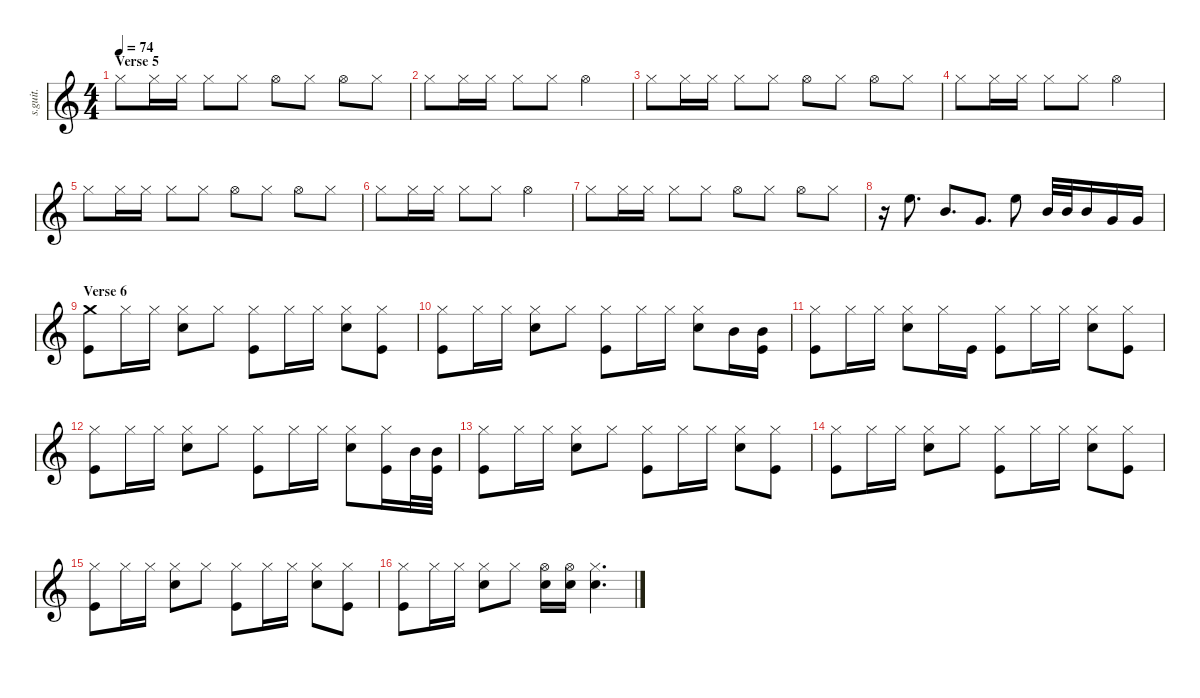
\defaultSystemsLayout 4
\hideDynamics
\bracketExtendMode nobrackets
\track ("Don Henley - Drums" "s.guit.") {instrument percussion}
\staff {score}
\articulation defaults
\ts (4 4)
\section ("" "Verse 5")
\tempo 74
\clef g2
\ks c "Hi-Hat (closed)".8{lyrics (0 "") lyrics (1 "") lyrics (2 "") lyrics (3 "") lyrics (4 "") dy f} "Hi-Hat (closed)".16{lyrics (0 "") lyrics (1 "") lyrics (2 "") lyrics (3 "") lyrics (4 "")} "Hi-Hat (closed)".16{lyrics (0 "") lyrics (1 "") lyrics (2 "") lyrics (3 "") lyrics (4 "")} "Hi-Hat (closed)".8{lyrics (0 "") lyrics (1 "") lyrics (2 "") lyrics (3 "") lyrics (4 "")} "Hi-Hat (closed)".8{lyrics (0 "") lyrics (1 "") lyrics (2 "") lyrics (3 "") lyrics (4 "")} "Hi-Hat (open)".8{lyrics (0 "") lyrics (1 "") lyrics (2 "") lyrics (3 "") lyrics (4 "")} "Hi-Hat (closed)".8{lyrics (0 "") lyrics (1 "") lyrics (2 "") lyrics (3 "") lyrics (4 "")} "Hi-Hat (open)".8{lyrics (0 "") lyrics (1 "") lyrics (2 "") lyrics (3 "") lyrics (4 "")} "Hi-Hat (closed)".8{lyrics (0 "") lyrics (1 "") lyrics (2 "") lyrics (3 "") lyrics (4 "")}
|
"Hi-Hat (closed)".8{lyrics (0 "") lyrics (1 "") lyrics (2 "") lyrics (3 "") lyrics (4 "")} "Hi-Hat (closed)".16{lyrics (0 "") lyrics (1 "") lyrics (2 "") lyrics (3 "") lyrics (4 "")} "Hi-Hat (closed)".16{lyrics (0 "") lyrics (1 "") lyrics (2 "") lyrics (3 "") lyrics (4 "")} "Hi-Hat (closed)".8{lyrics (0 "") lyrics (1 "") lyrics (2 "") lyrics (3 "") lyrics (4 "")} "Hi-Hat (closed)".8{lyrics (0 "") lyrics (1 "") lyrics (2 "") lyrics (3 "") lyrics (4 "")} "Hi-Hat (open)".2{lyrics (0 "") lyrics (1 "") lyrics (2 "") lyrics (3 "") lyrics (4 "")} |
"Hi-Hat (closed)".8{lyrics (0 "") lyrics (1 "") lyrics (2 "") lyrics (3 "") lyrics (4 "")} "Hi-Hat (closed)".16{lyrics (0 "") lyrics (1 "") lyrics (2 "") lyrics (3 "") lyrics (4 "")} "Hi-Hat (closed)".16{lyrics (0 "") lyrics (1 "") lyrics (2 "") lyrics (3 "") lyrics (4 "")} "Hi-Hat (closed)".8{lyrics (0 "") lyrics (1 "") lyrics (2 "") lyrics (3 "") lyrics (4 "")} "Hi-Hat (closed)".8{lyrics (0 "") lyrics (1 "") lyrics (2 "") lyrics (3 "") lyrics (4 "")} "Hi-Hat (open)".8{lyrics (0 "") lyrics (1 "") lyrics (2 "") lyrics (3 "") lyrics (4 "")} "Hi-Hat (closed)".8{lyrics (0 "") lyrics (1 "") lyrics (2 "") lyrics (3 "") lyrics (4 "")} "Hi-Hat (open)".8{lyrics (0 "") lyrics (1 "") lyrics (2 "") lyrics (3 "") lyrics (4 "")} "Hi-Hat (closed)".8{lyrics (0 "") lyrics (1 "") lyrics (2 "") lyrics (3 "") lyrics (4 "")} |
"Hi-Hat (closed)".8{lyrics (0 "") lyrics (1 "") lyrics (2 "") lyrics (3 "") lyrics (4 "")} "Hi-Hat (closed)".16{lyrics (0 "") lyrics (1 "") lyrics (2 "") lyrics (3 "") lyrics (4 "")} "Hi-Hat (closed)".16{lyrics (0 "") lyrics (1 "") lyrics (2 "") lyrics (3 "") lyrics (4 "")} "Hi-Hat (closed)".8{lyrics (0 "") lyrics (1 "") lyrics (2 "") lyrics (3 "") lyrics (4 "")} "Hi-Hat (closed)".8{lyrics (0 "") lyrics (1 "") lyrics (2 "") lyrics (3 "") lyrics (4 "")} "Hi-Hat (open)".2{lyrics (0 "") lyrics (1 "") lyrics (2 "") lyrics (3 "") lyrics (4 "")} |
"Hi-Hat (closed)".8{lyrics (0 "") lyrics (1 "") lyrics (2 "") lyrics (3 "") lyrics (4 "")} "Hi-Hat (closed)".16{lyrics (0 "") lyrics (1 "") lyrics (2 "") lyrics (3 "") lyrics (4 "")} "Hi-Hat (closed)".16{lyrics (0 "") lyrics (1 "") lyrics (2 "") lyrics (3 "") lyrics (4 "")} "Hi-Hat (closed)".8{lyrics (0 "") lyrics (1 "") lyrics (2 "") lyrics (3 "") lyrics (4 "")} "Hi-Hat (closed)".8{lyrics (0 "") lyrics (1 "") lyrics (2 "") lyrics (3 "") lyrics (4 "")} "Hi-Hat (open)".8{lyrics (0 "") lyrics (1 "") lyrics (2 "") lyrics (3 "") lyrics (4 "")} "Hi-Hat (closed)".8{lyrics (0 "") lyrics (1 "") lyrics (2 "") lyrics (3 "") lyrics (4 "")} "Hi-Hat (open)".8{lyrics (0 "") lyrics (1 "") lyrics (2 "") lyrics (3 "") lyrics (4 "")} "Hi-Hat (closed)".8{lyrics (0 "") lyrics (1 "") lyrics (2 "") lyrics (3 "") lyrics (4 "")} |
"Hi-Hat (closed)".8{lyrics (0 "") lyrics (1 "") lyrics (2 "") lyrics (3 "") lyrics (4 "")} "Hi-Hat (closed)".16{lyrics (0 "") lyrics (1 "") lyrics (2 "") lyrics (3 "") lyrics (4 "")} "Hi-Hat (closed)".16{lyrics (0 "") lyrics (1 "") lyrics (2 "") lyrics (3 "") lyrics (4 "")} "Hi-Hat (closed)".8{lyrics (0 "") lyrics (1 "") lyrics (2 "") lyrics (3 "") lyrics (4 "")} "Hi-Hat (closed)".8{lyrics (0 "") lyrics (1 "") lyrics (2 "") lyrics (3 "") lyrics (4 "")} "Hi-Hat (open)".2{lyrics (0 "") lyrics (1 "") lyrics (2 "") lyrics (3 "") lyrics (4 "")} |
"Hi-Hat (closed)".8{lyrics (0 "") lyrics (1 "") lyrics (2 "") lyrics (3 "") lyrics (4 "")} "Hi-Hat (closed)".16{lyrics (0 "") lyrics (1 "") lyrics (2 "") lyrics (3 "") lyrics (4 "")} "Hi-Hat (closed)".16{lyrics (0 "") lyrics (1 "") lyrics (2 "") lyrics (3 "") lyrics (4 "")} "Hi-Hat (closed)".8{lyrics (0 "") lyrics (1 "") lyrics (2 "") lyrics (3 "") lyrics (4 "")} "Hi-Hat (closed)".8{lyrics (0 "") lyrics (1 "") lyrics (2 "") lyrics (3 "") lyrics (4 "")} "Hi-Hat (open)".8{lyrics (0 "") lyrics (1 "") lyrics (2 "") lyrics (3 "") lyrics (4 "")} "Hi-Hat (closed)".8{lyrics (0 "") lyrics (1 "") lyrics (2 "") lyrics (3 "") lyrics (4 "")} "Hi-Hat (open)".8{lyrics (0 "") lyrics (1 "") lyrics (2 "") lyrics (3 "") lyrics (4 "")} "Hi-Hat (closed)".8{lyrics (0 "") lyrics (1 "") lyrics (2 "") lyrics (3 "") lyrics (4 "")} |
r.16 "High Floor Tom (hit)".8{d lyrics (0 "") lyrics (1 "") lyrics (2 "") lyrics (3 "") lyrics (4 "")} "Mid Tom (hit)".8{d lyrics (0 "") lyrics (1 "") lyrics (2 "") lyrics (3 "") lyrics (4 "")} "Very Low Tom (hit)".8{d lyrics (0 "") lyrics (1 "") lyrics (2 "") lyrics (3 "") lyrics (4 "")} "High Floor Tom (hit)".8{lyrics (0 "") lyrics (1 "") lyrics (2 "") lyrics (3 "") lyrics (4 "")} "Mid Tom (hit)".32{lyrics (0 "") lyrics (1 "") lyrics (2 "") lyrics (3 "") lyrics (4 "")} "Mid Tom (hit)".32{lyrics (0 "") lyrics (1 "") lyrics (2 "") lyrics (3 "") lyrics (4 "")} "Mid Tom (hit)".16{lyrics (0 "") lyrics (1 "") lyrics (2 "") lyrics (3 "") lyrics (4 "")} "Very Low Tom (hit)".16{lyrics (0 "") lyrics (1 "") lyrics (2 "") lyrics (3 "") lyrics (4 "")} "Very Low Tom (hit)".16{lyrics (0 "") lyrics (1 "") lyrics (2 "") lyrics (3 "") lyrics (4 "")} |
\section ("" "Verse 6")
("Crash medium (hit)" "Kick (hit)").8{lyrics (0 "") lyrics (1 "") lyrics (2 "") lyrics (3 "") lyrics (4 "")} "Hi-Hat (closed)".16{lyrics (0 "") lyrics (1 "") lyrics (2 "") lyrics (3 "") lyrics (4 "")} "Hi-Hat (closed)".16{lyrics (0 "") lyrics (1 "") lyrics (2 "") lyrics (3 "") lyrics (4 "")} ("Hi-Hat (closed)" "Snare (hit) 2").8{lyrics (0 "") lyrics (1 "") lyrics (2 "") lyrics (3 "") lyrics (4 "")} "Hi-Hat (closed)".8{lyrics (0 "") lyrics (1 "") lyrics (2 "") lyrics (3 "") lyrics (4 "")} ("Hi-Hat (closed)" "Kick (hit)").8{lyrics (0 "") lyrics (1 "") lyrics (2 "") lyrics (3 "") lyrics (4 "")} "Hi-Hat (closed)".16{lyrics (0 "") lyrics (1 "") lyrics (2 "") lyrics (3 "") lyrics (4 "")} "Hi-Hat (closed)".16{lyrics (0 "") lyrics (1 "") lyrics (2 "") lyrics (3 "") lyrics (4 "")} ("Hi-Hat (closed)" "Snare (hit) 2").8{lyrics (0 "") lyrics (1 "") lyrics (2 "") lyrics (3 "") lyrics (4 "")} ("Hi-Hat (closed)" "Kick (hit)").8{lyrics (0 "") lyrics (1 "") lyrics (2 "") lyrics (3 "") lyrics (4 "")} |
("Hi-Hat (closed)" "Kick (hit)").8{lyrics (0 "") lyrics (1 "") lyrics (2 "") lyrics (3 "") lyrics (4 "")} "Hi-Hat (closed)".16{lyrics (0 "") lyrics (1 "") lyrics (2 "") lyrics (3 "") lyrics (4 "")} "Hi-Hat (closed)".16{lyrics (0 "") lyrics (1 "") lyrics (2 "") lyrics (3 "") lyrics (4 "")} ("Hi-Hat (closed)" "Snare (hit) 2").8{lyrics (0 "") lyrics (1 "") lyrics (2 "") lyrics (3 "") lyrics (4 "")} "Hi-Hat (closed)".8{lyrics (0 "") lyrics (1 "") lyrics (2 "") lyrics (3 "") lyrics (4 "")} ("Hi-Hat (closed)" "Kick (hit)").8{lyrics (0 "") lyrics (1 "") lyrics (2 "") lyrics (3 "") lyrics (4 "")} "Hi-Hat (closed)".16{lyrics (0 "") lyrics (1 "") lyrics (2 "") lyrics (3 "") lyrics (4 "")} "Hi-Hat (closed)".16{lyrics (0 "") lyrics (1 "") lyrics (2 "") lyrics (3 "") lyrics (4 "")} ("Hi-Hat (closed)" "Snare (hit) 2").8{lyrics (0 "") lyrics (1 "") lyrics (2 "") lyrics (3 "") lyrics (4 "")} "Mid Tom (hit)".16{lyrics (0 "") lyrics (1 "") lyrics (2 "") lyrics (3 "") lyrics (4 "")} ("Mid Tom (hit)" "Kick (hit)").16{lyrics (0 "") lyrics (1 "") lyrics (2 "") lyrics (3 "") lyrics (4 "")} |
("Hi-Hat (closed)" "Kick (hit)").8{lyrics (0 "") lyrics (1 "") lyrics (2 "") lyrics (3 "") lyrics (4 "")} "Hi-Hat (closed)".16{lyrics (0 "") lyrics (1 "") lyrics (2 "") lyrics (3 "") lyrics (4 "")} "Hi-Hat (closed)".16{lyrics (0 "") lyrics (1 "") lyrics (2 "") lyrics (3 "") lyrics (4 "")} ("Hi-Hat (closed)" "Snare (hit) 2").8{lyrics (0 "") lyrics (1 "") lyrics (2 "") lyrics (3 "") lyrics (4 "")} "Hi-Hat (closed)".16{lyrics (0 "") lyrics (1 "") lyrics (2 "") lyrics (3 "") lyrics (4 "")} "Kick (hit)".16{lyrics (0 "") lyrics (1 "") lyrics (2 "") lyrics (3 "") lyrics (4 "")} ("Hi-Hat (closed)" "Kick (hit)").8{lyrics (0 "") lyrics (1 "") lyrics (2 "") lyrics (3 "") lyrics (4 "")} "Hi-Hat (closed)".16{lyrics (0 "") lyrics (1 "") lyrics (2 "") lyrics (3 "") lyrics (4 "")} "Hi-Hat (closed)".16{lyrics (0 "") lyrics (1 "") lyrics (2 "") lyrics (3 "") lyrics (4 "")} ("Hi-Hat (closed)" "Snare (hit) 2").8{lyrics (0 "") lyrics (1 "") lyrics (2 "") lyrics (3 "") lyrics (4 "")} ("Hi-Hat (closed)" "Kick (hit)").8{lyrics (0 "") lyrics (1 "") lyrics (2 "") lyrics (3 "") lyrics (4 "")} |
("Hi-Hat (closed)" "Kick (hit)").8{lyrics (0 "") lyrics (1 "") lyrics (2 "") lyrics (3 "") lyrics (4 "")} "Hi-Hat (closed)".16{lyrics (0 "") lyrics (1 "") lyrics (2 "") lyrics (3 "") lyrics (4 "")} "Hi-Hat (closed)".16{lyrics (0 "") lyrics (1 "") lyrics (2 "") lyrics (3 "") lyrics (4 "")} ("Hi-Hat (closed)" "Snare (hit) 2").8{lyrics (0 "") lyrics (1 "") lyrics (2 "") lyrics (3 "") lyrics (4 "")} "Hi-Hat (closed)".8{lyrics (0 "") lyrics (1 "") lyrics (2 "") lyrics (3 "") lyrics (4 "")} ("Hi-Hat (closed)" "Kick (hit)").8{lyrics (0 "") lyrics (1 "") lyrics (2 "") lyrics (3 "") lyrics (4 "")} "Hi-Hat (closed)".16{lyrics (0 "") lyrics (1 "") lyrics (2 "") lyrics (3 "") lyrics (4 "")} "Hi-Hat (closed)".16{lyrics (0 "") lyrics (1 "") lyrics (2 "") lyrics (3 "") lyrics (4 "")} ("Hi-Hat (closed)" "Snare (hit) 2").8{lyrics (0 "") lyrics (1 "") lyrics (2 "") lyrics (3 "") lyrics (4 "")} ("Hi-Hat (closed)" "Kick (hit)").16{lyrics (0 "") lyrics (1 "") lyrics (2 "") lyrics (3 "") lyrics (4 "")} "Mid Tom (hit)".32{lyrics (0 "") lyrics (1 "") lyrics (2 "") lyrics (3 "") lyrics (4 "")} ("Mid Tom (hit)" "Kick (hit)").32{lyrics (0 "") lyrics (1 "") lyrics (2 "") lyrics (3 "") lyrics (4 "")} |
("Hi-Hat (closed)" "Kick (hit)").8{lyrics (0 "") lyrics (1 "") lyrics (2 "") lyrics (3 "") lyrics (4 "")} "Hi-Hat (closed)".16{lyrics (0 "") lyrics (1 "") lyrics (2 "") lyrics (3 "") lyrics (4 "")} "Hi-Hat (closed)".16{lyrics (0 "") lyrics (1 "") lyrics (2 "") lyrics (3 "") lyrics (4 "")} ("Hi-Hat (closed)" "Snare (hit) 2").8{lyrics (0 "") lyrics (1 "") lyrics (2 "") lyrics (3 "") lyrics (4 "")} "Hi-Hat (closed)".8{lyrics (0 "") lyrics (1 "") lyrics (2 "") lyrics (3 "") lyrics (4 "")} ("Hi-Hat (closed)" "Kick (hit)").8{lyrics (0 "") lyrics (1 "") lyrics (2 "") lyrics (3 "") lyrics (4 "")} "Hi-Hat (closed)".16{lyrics (0 "") lyrics (1 "") lyrics (2 "") lyrics (3 "") lyrics (4 "")} "Hi-Hat (closed)".16{lyrics (0 "") lyrics (1 "") lyrics (2 "") lyrics (3 "") lyrics (4 "")} ("Hi-Hat (closed)" "Snare (hit) 2").8{lyrics (0 "") lyrics (1 "") lyrics (2 "") lyrics (3 "") lyrics (4 "")} ("Hi-Hat (closed)" "Kick (hit)").8{lyrics (0 "") lyrics (1 "") lyrics (2 "") lyrics (3 "") lyrics (4 "")} |
("Hi-Hat (closed)" "Kick (hit)").8{lyrics (0 "") lyrics (1 "") lyrics (2 "") lyrics (3 "") lyrics (4 "")} "Hi-Hat (closed)".16{lyrics (0 "") lyrics (1 "") lyrics (2 "") lyrics (3 "") lyrics (4 "")} "Hi-Hat (closed)".16{lyrics (0 "") lyrics (1 "") lyrics (2 "") lyrics (3 "") lyrics (4 "")} ("Hi-Hat (closed)" "Snare (hit) 2").8{lyrics (0 "") lyrics (1 "") lyrics (2 "") lyrics (3 "") lyrics (4 "")} "Hi-Hat (closed)".8{lyrics (0 "") lyrics (1 "") lyrics (2 "") lyrics (3 "") lyrics (4 "")} ("Hi-Hat (closed)" "Kick (hit)").8{lyrics (0 "") lyrics (1 "") lyrics (2 "") lyrics (3 "") lyrics (4 "")} "Hi-Hat (closed)".16{lyrics (0 "") lyrics (1 "") lyrics (2 "") lyrics (3 "") lyrics (4 "")} "Hi-Hat (closed)".16{lyrics (0 "") lyrics (1 "") lyrics (2 "") lyrics (3 "") lyrics (4 "")} ("Hi-Hat (closed)" "Snare (hit) 2").8{lyrics (0 "") lyrics (1 "") lyrics (2 "") lyrics (3 "") lyrics (4 "")} ("Hi-Hat (closed)" "Kick (hit)").8{lyrics (0 "") lyrics (1 "") lyrics (2 "") lyrics (3 "") lyrics (4 "")} |
("Hi-Hat (closed)" "Kick (hit)").8{lyrics (0 "") lyrics (1 "") lyrics (2 "") lyrics (3 "") lyrics (4 "")} "Hi-Hat (closed)".16{lyrics (0 "") lyrics (1 "") lyrics (2 "") lyrics (3 "") lyrics (4 "")} "Hi-Hat (closed)".16{lyrics (0 "") lyrics (1 "") lyrics (2 "") lyrics (3 "") lyrics (4 "")} ("Hi-Hat (closed)" "Snare (hit) 2").8{lyrics (0 "") lyrics (1 "") lyrics (2 "") lyrics (3 "") lyrics (4 "")} "Hi-Hat (closed)".8{lyrics (0 "") lyrics (1 "") lyrics (2 "") lyrics (3 "") lyrics (4 "")} ("Hi-Hat (closed)" "Kick (hit)").8{lyrics (0 "") lyrics (1 "") lyrics (2 "") lyrics (3 "") lyrics (4 "")} "Hi-Hat (closed)".16{lyrics (0 "") lyrics (1 "") lyrics (2 "") lyrics (3 "") lyrics (4 "")} "Hi-Hat (closed)".16{lyrics (0 "") lyrics (1 "") lyrics (2 "") lyrics (3 "") lyrics (4 "")} ("Hi-Hat (closed)" "Snare (hit) 2").8{lyrics (0 "") lyrics (1 "") lyrics (2 "") lyrics (3 "") lyrics (4 "")} ("Hi-Hat (closed)" "Kick (hit)").8{lyrics (0 "") lyrics (1 "") lyrics (2 "") lyrics (3 "") lyrics (4 "")} |
("Hi-Hat (closed)" "Kick (hit)").8{lyrics (0 "") lyrics (1 "") lyrics (2 "") lyrics (3 "") lyrics (4 "")} "Hi-Hat (closed)".16{lyrics (0 "") lyrics (1 "") lyrics (2 "") lyrics (3 "") lyrics (4 "")} "Hi-Hat (closed)".16{lyrics (0 "") lyrics (1 "") lyrics (2 "") lyrics (3 "") lyrics (4 "")} ("Hi-Hat (closed)" "Snare (hit) 2").8{lyrics (0 "") lyrics (1 "") lyrics (2 "") lyrics (3 "") lyrics (4 "")} "Hi-Hat (closed)".8{lyrics (0 "") lyrics (1 "") lyrics (2 "") lyrics (3 "") lyrics (4 "")} ("Hi-Hat (open)" "Snare (hit) 2").16{lyrics (0 "") lyrics (1 "") lyrics (2 "") lyrics (3 "") lyrics (4 "")} ("Hi-Hat (open)" "Snare (hit) 2").16{lyrics (0 "") lyrics (1 "") lyrics (2 "") lyrics (3 "") lyrics (4 "")} ("Hi-Hat (closed)" "Snare (hit) 2").4{d lyrics (0 "") lyrics (1 "") lyrics (2 "") lyrics (3 "") lyrics (4 "")}
